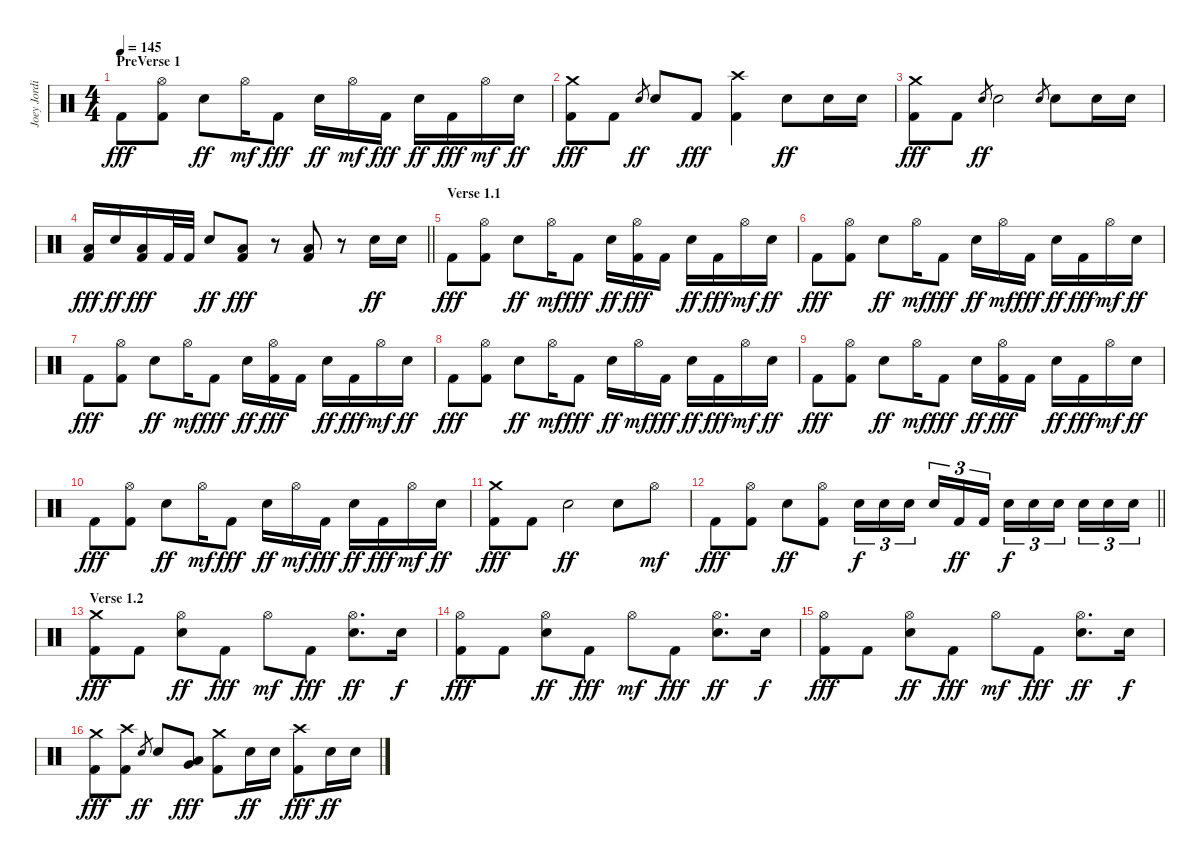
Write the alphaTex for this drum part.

\track ("Joey Jordison" "Joey Jordi") {instrument percussion}
\staff {score}
\articulation defaults
\ts (4 4)
\section ("" "PreVerse 1")
\tempo 145
\clef neutral
\ks c "Kick (hit) 2".8{dy fff}
("Hi-Hat (open)" "Kick (hit) 2").8 "Electric Snare (hit)".8{dy ff} "Hi-Hat (open)".16{dy mf} "Kick (hit) 2".8{dy fff} "Electric Snare (hit)".16{dy ff} "Hi-Hat (open)".16{dy mf} "Kick (hit) 2".16{dy fff} "Electric Snare (hit)".16{dy ff} "Kick (hit) 2".16{dy fff} "Hi-Hat (open)".16{dy mf} "Electric Snare (hit)".16{dy ff} |
("Crash medium (hit)" "Kick (hit) 2").8{dy fff} "Kick (hit) 2".8 "Electric Snare (hit)".8{gr dy ff} "Electric Snare (hit)".8 "Kick (hit) 2".8{dy fff} ("Crash high (hit)" "Kick (hit) 2").4 "Electric Snare (hit)".8{dy ff} "Electric Snare (hit)".16 "Electric Snare (hit)".16 |
("Crash medium (hit)" "Kick (hit) 2").8{dy fff} "Kick (hit) 2".8 "Electric Snare (hit)".8{gr dy ff} "Electric Snare (hit)".2 "Electric Snare (hit)".8{gr} "Electric Snare (hit)".8 "Electric Snare (hit)".16 "Electric Snare (hit)".16 |
\barLineRight lightlight
("Low Floor Tom (hit)" "Kick (hit) 2").16{dy fff} "Electric Snare (hit)".16{dy ff} ("Low Floor Tom (hit)" "Kick (hit) 2").16{dy fff} "Kick (hit) 2".32 "Kick (hit) 2".32 "Electric Snare (hit)".8{dy ff} ("Low Floor Tom (hit)" "Kick (hit) 2").8{dy fff} r.8 ("Low Floor Tom (hit)" "Kick (hit) 2").8 r.8 "Electric Snare (hit)".16{dy ff} "Electric Snare (hit)".16 |
\section ("" "Verse 1.1")
"Kick (hit) 2".8{dy fff} ("Hi-Hat (open)" "Kick (hit) 2").8 "Electric Snare (hit)".8{dy ff} "Hi-Hat (open)".16{dy mf} "Kick (hit) 2".8{dy fff} "Electric Snare (hit)".16{dy ff} ("Hi-Hat (open)" "Kick (hit) 2").16{dy fff} "Kick (hit) 2".16 "Electric Snare (hit)".16{dy ff} "Kick (hit) 2".16{dy fff} "Hi-Hat (open)".16{dy mf} "Electric Snare (hit)".16{dy ff} |
"Kick (hit) 2".8{dy fff} ("Hi-Hat (open)" "Kick (hit) 2").8 "Electric Snare (hit)".8{dy ff} "Hi-Hat (open)".16{dy mf} "Kick (hit) 2".8{dy fff} "Electric Snare (hit)".16{dy ff} "Hi-Hat (open)".16{dy mf} "Kick (hit) 2".16{dy fff} "Electric Snare (hit)".16{dy ff} "Kick (hit) 2".16{dy fff} "Hi-Hat (open)".16{dy mf} "Electric Snare (hit)".16{dy ff} |
"Kick (hit) 2".8{dy fff} ("Hi-Hat (open)" "Kick (hit) 2").8 "Electric Snare (hit)".8{dy ff} "Hi-Hat (open)".16{dy mf} "Kick (hit) 2".8{dy fff} "Electric Snare (hit)".16{dy ff} ("Hi-Hat (open)" "Kick (hit) 2").16{dy fff} "Kick (hit) 2".16 "Electric Snare (hit)".16{dy ff} "Kick (hit) 2".16{dy fff} "Hi-Hat (open)".16{dy mf} "Electric Snare (hit)".16{dy ff} |
"Kick (hit) 2".8{dy fff} ("Hi-Hat (open)" "Kick (hit) 2").8 "Electric Snare (hit)".8{dy ff} "Hi-Hat (open)".16{dy mf} "Kick (hit) 2".8{dy fff} "Electric Snare (hit)".16{dy ff} "Hi-Hat (open)".16{dy mf} "Kick (hit) 2".16{dy fff} "Electric Snare (hit)".16{dy ff} "Kick (hit) 2".16{dy fff} "Hi-Hat (open)".16{dy mf} "Electric Snare (hit)".16{dy ff} |
"Kick (hit) 2".8{dy fff} ("Hi-Hat (open)" "Kick (hit) 2").8 "Electric Snare (hit)".8{dy ff} "Hi-Hat (open)".16{dy mf} "Kick (hit) 2".8{dy fff} "Electric Snare (hit)".16{dy ff} ("Hi-Hat (open)" "Kick (hit) 2").16{dy fff} "Kick (hit) 2".16 "Electric Snare (hit)".16{dy ff} "Kick (hit) 2".16{dy fff} "Hi-Hat (open)".16{dy mf} "Electric Snare (hit)".16{dy ff} |
"Kick (hit) 2".8{dy fff} ("Hi-Hat (open)" "Kick (hit) 2").8 "Electric Snare (hit)".8{dy ff} "Hi-Hat (open)".16{dy mf} "Kick (hit) 2".8{dy fff} "Electric Snare (hit)".16{dy ff} "Hi-Hat (open)".16{dy mf} "Kick (hit) 2".16{dy fff} "Electric Snare (hit)".16{dy ff} "Kick (hit) 2".16{dy fff} "Hi-Hat (open)".16{dy mf} "Electric Snare (hit)".16{dy ff} |
("Crash medium (hit)" "Kick (hit) 2").8{dy fff} "Kick (hit) 2".8 "Electric Snare (hit)".2{dy ff} "Electric Snare (hit)".8 "Hi-Hat (open)".8{dy mf} |
\barLineRight lightlight "Kick (hit) 2".8{dy fff}
("Hi-Hat (open)" "Kick (hit) 2").8 "Electric Snare (hit)".8{dy ff} ("Hi-Hat (open)" "Kick (hit) 2").8 "Electric Snare (hit)".16{tu (3 2) dy f} "Electric Snare (hit)".16{tu (3 2)} "Electric Snare (hit)".16{tu (3 2) beam splitsecondary} "Electric Snare (hit)".16{tu (3 2)} "Kick (hit) 2".16{tu (3 2) dy ff} "Kick (hit) 2".16{tu (3 2)} "Electric Snare (hit)".16{tu (3 2) dy f} "Electric Snare (hit)".16{tu (3 2)} "Electric Snare (hit)".16{tu (3 2) beam splitsecondary} "Electric Snare (hit)".16{tu (3 2)} "Electric Snare (hit)".16{tu (3 2)} "Electric Snare (hit)".16{tu (3 2)} |
\section ("" "Verse 1.2")
("Crash medium (hit)" "Kick (hit) 2").8{dy fff} "Kick (hit) 2".8 ("Hi-Hat (open)" "Electric Snare (hit)").8{dy ff} "Kick (hit) 2".8{dy fff} "Hi-Hat (open)".8{dy mf} "Kick (hit) 2".8{dy fff} ("Hi-Hat (open)" "Electric Snare (hit)").8{d dy ff} "Electric Snare (hit)".16{dy f} |
("Hi-Hat (open)" "Kick (hit) 2").8{dy fff} "Kick (hit) 2".8 ("Hi-Hat (open)" "Electric Snare (hit)").8{dy ff} "Kick (hit) 2".8{dy fff} "Hi-Hat (open)".8{dy mf} "Kick (hit) 2".8{dy fff} ("Hi-Hat (open)" "Electric Snare (hit)").8{d dy ff} "Electric Snare (hit)".16{dy f} |
("Hi-Hat (open)" "Kick (hit) 2").8{dy fff} "Kick (hit) 2".8 ("Hi-Hat (open)" "Electric Snare (hit)").8{dy ff} "Kick (hit) 2".8{dy fff} "Hi-Hat (open)".8{dy mf} "Kick (hit) 2".8{dy fff} ("Hi-Hat (open)" "Electric Snare (hit)").8{d dy ff} "Electric Snare (hit)".16{dy f} |
("Crash medium (hit)" "Kick (hit) 2").8{dy fff} ("Crash high (hit)" "Kick (hit) 2").8 "Electric Snare (hit)".8{gr dy ff} "Electric Snare (hit)".8 ("Low Tom (hit)" "Very Low Tom (hit)").8{dy fff} ("Crash medium (hit)" "Kick (hit) 2").8 "Electric Snare (hit)".16{dy ff} "Electric Snare (hit)".16 ("Crash high (hit)" "Kick (hit) 2").8{dy fff} "Electric Snare (hit)".16{dy ff} "Electric Snare (hit)".16
